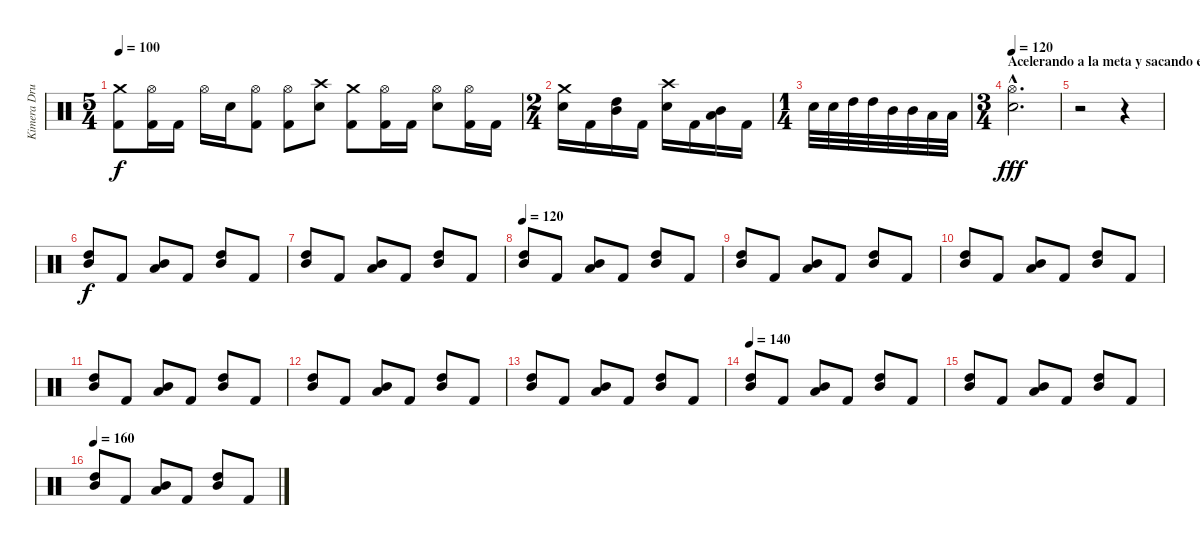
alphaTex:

\track ("Kimera Drummer" "Kimera Dru") {instrument percussion}
\staff {score}
\articulation defaults
\ts (5 4)
\tempo 100
\clef neutral
\ks c
("Crash medium (hit)" "Kick (hit) 2").8{dy f} ("Hi-Hat (open)" "Kick (hit) 2").16 "Kick (hit) 2".16 "Hi-Hat (open)".16 "Electric Snare (hit)".16 ("Hi-Hat (open)" "Kick (hit) 2").8 ("Hi-Hat (open)" "Kick (hit) 2").8 ("Crash high (hit)" "Electric Snare (hit)").8 ("Crash medium (hit)" "Kick (hit) 2").8 ("Hi-Hat (open)" "Kick (hit) 2").16 "Kick (hit) 2".16 ("Hi-Hat (open)" "Electric Snare (hit)").8 ("Hi-Hat (open)" "Kick (hit) 2").16 "Kick (hit) 2".16 |
\ts (2 4)
("Crash medium (hit)" "Electric Snare (hit)").16 "Kick (hit) 2".16 ("High Tom (hit)" "Mid Tom (hit)").16 "Kick (hit) 2".16 ("Crash high (hit)" "Electric Snare (hit)").16 "Kick (hit) 2".16 ("Mid Tom (hit)" "Low Floor Tom (hit)").16 "Kick (hit) 2".16 |
\ts (1 4)
"Electric Snare (hit)".32 "Electric Snare (hit)".32 "High Tom (hit)".32 "High Tom (hit)".32 "Mid Tom (hit)".32 "Mid Tom (hit)".32 "Low Floor Tom (hit)".32 "Low Floor Tom (hit)".32 |
\ts (3 4)
\section ("" "Acelerando a la meta y sacando el 1 lugar")
\tempo 120
("Hi-Hat (open)"{hac} "Electric Snare (hit)"{hac}).2{d dy fff} |
r.2 r.4 |
("High Tom (hit)" "Mid Tom (hit)").8{dy f} "Kick (hit) 2".8 ("Mid Tom (hit)" "Low Floor Tom (hit)").8 "Kick (hit) 2".8 ("High Tom (hit)" "Mid Tom (hit)").8 "Kick (hit) 2".8 |
("High Tom (hit)" "Mid Tom (hit)").8 "Kick (hit) 2".8 ("Mid Tom (hit)" "Low Floor Tom (hit)").8 "Kick (hit) 2".8 ("High Tom (hit)" "Mid Tom (hit)").8 "Kick (hit) 2".8 |
\tempo 120
("High Tom (hit)" "Mid Tom (hit)").8 "Kick (hit) 2".8 ("Mid Tom (hit)" "Low Floor Tom (hit)").8 "Kick (hit) 2".8 ("High Tom (hit)" "Mid Tom (hit)").8 "Kick (hit) 2".8 |
("High Tom (hit)" "Mid Tom (hit)").8 "Kick (hit) 2".8 ("Mid Tom (hit)" "Low Floor Tom (hit)").8 "Kick (hit) 2".8 ("High Tom (hit)" "Mid Tom (hit)").8 "Kick (hit) 2".8 |
("High Tom (hit)" "Mid Tom (hit)").8 "Kick (hit) 2".8 ("Mid Tom (hit)" "Low Floor Tom (hit)").8 "Kick (hit) 2".8 ("High Tom (hit)" "Mid Tom (hit)").8 "Kick (hit) 2".8 |
("High Tom (hit)" "Mid Tom (hit)").8 "Kick (hit) 2".8 ("Mid Tom (hit)" "Low Floor Tom (hit)").8 "Kick (hit) 2".8 ("High Tom (hit)" "Mid Tom (hit)").8 "Kick (hit) 2".8 |
("High Tom (hit)" "Mid Tom (hit)").8 "Kick (hit) 2".8 ("Mid Tom (hit)" "Low Floor Tom (hit)").8 "Kick (hit) 2".8 ("High Tom (hit)" "Mid Tom (hit)").8 "Kick (hit) 2".8 |
("High Tom (hit)" "Mid Tom (hit)").8 "Kick (hit) 2".8 ("Mid Tom (hit)" "Low Floor Tom (hit)").8 "Kick (hit) 2".8 ("High Tom (hit)" "Mid Tom (hit)").8 "Kick (hit) 2".8 |
\tempo 140
("High Tom (hit)" "Mid Tom (hit)").8 "Kick (hit) 2".8 ("Mid Tom (hit)" "Low Floor Tom (hit)").8 "Kick (hit) 2".8 ("High Tom (hit)" "Mid Tom (hit)").8 "Kick (hit) 2".8 |
("High Tom (hit)" "Mid Tom (hit)").8 "Kick (hit) 2".8 ("Mid Tom (hit)" "Low Floor Tom (hit)").8 "Kick (hit) 2".8 ("High Tom (hit)" "Mid Tom (hit)").8 "Kick (hit) 2".8 |
\tempo 160
("High Tom (hit)" "Mid Tom (hit)").8 "Kick (hit) 2".8 ("Mid Tom (hit)" "Low Floor Tom (hit)").8 "Kick (hit) 2".8 ("High Tom (hit)" "Mid Tom (hit)").8 "Kick (hit) 2".8
